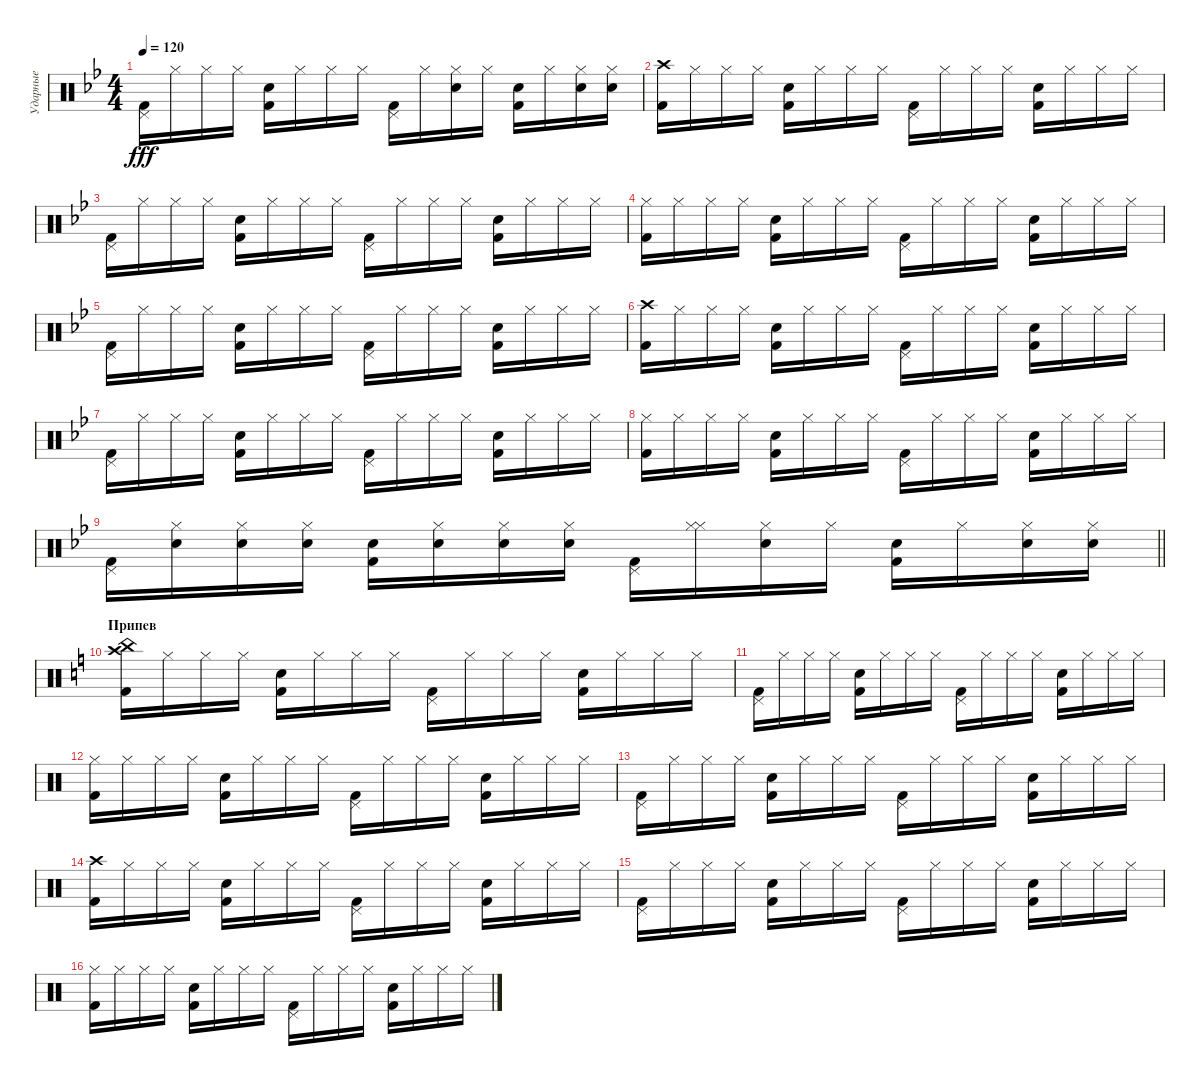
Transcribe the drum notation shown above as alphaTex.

\track ("Ударные" "Ударные") {instrument percussion}
\staff {score}
\articulation defaults
\ts (4 4)
\tempo 120
\clef neutral
\ks gminor
("Pedal Hi-Hat (hit)" "Kick (hit) 2").16{dy fff} "Hi-Hat (closed)".16 "Hi-Hat (closed)".16 "Hi-Hat (closed)".16 ("Snare (hit) 2" "Kick (hit) 2").16 "Hi-Hat (closed)".16 "Hi-Hat (closed)".16 "Hi-Hat (closed)".16 ("Pedal Hi-Hat (hit)" "Kick (hit) 2").16 "Hi-Hat (closed)".16 ("Hi-Hat (closed)" "Snare (hit) 2").16 "Hi-Hat (closed)".16 ("Snare (hit) 2" "Kick (hit) 2").16 "Hi-Hat (closed)".16 ("Hi-Hat (closed)" "Snare (hit) 2").16 ("Hi-Hat (closed)" "Snare (hit) 2").16 |
("Crash high (hit)" "Kick (hit) 2").16 "Hi-Hat (closed)".16 "Hi-Hat (closed)".16 "Hi-Hat (closed)".16 ("Snare (hit) 2" "Kick (hit) 2").16 "Hi-Hat (closed)".16 "Hi-Hat (closed)".16 "Hi-Hat (closed)".16 ("Pedal Hi-Hat (hit)" "Kick (hit) 2").16 "Hi-Hat (closed)".16 "Hi-Hat (closed)".16 "Hi-Hat (closed)".16 ("Snare (hit) 2" "Kick (hit) 2").16 "Hi-Hat (closed)".16 "Hi-Hat (closed)".16 "Hi-Hat (closed)".16 |
("Pedal Hi-Hat (hit)" "Kick (hit) 2").16 "Hi-Hat (closed)".16 "Hi-Hat (closed)".16 "Hi-Hat (closed)".16 ("Snare (hit) 2" "Kick (hit) 2").16 "Hi-Hat (closed)".16 "Hi-Hat (closed)".16 "Hi-Hat (closed)".16 ("Pedal Hi-Hat (hit)" "Kick (hit) 2").16 "Hi-Hat (closed)".16 "Hi-Hat (closed)".16 "Hi-Hat (closed)".16 ("Snare (hit) 2" "Kick (hit) 2").16 "Hi-Hat (closed)".16 "Hi-Hat (closed)".16 "Hi-Hat (closed)".16 |
("Hi-Hat (closed)" "Kick (hit) 2").16 "Hi-Hat (closed)".16 "Hi-Hat (closed)".16 "Hi-Hat (closed)".16 ("Snare (hit) 2" "Kick (hit) 2").16 "Hi-Hat (closed)".16 "Hi-Hat (closed)".16 "Hi-Hat (closed)".16 ("Pedal Hi-Hat (hit)" "Kick (hit) 2").16 "Hi-Hat (closed)".16 "Hi-Hat (closed)".16 "Hi-Hat (closed)".16 ("Snare (hit) 2" "Kick (hit) 2").16 "Hi-Hat (closed)".16 "Hi-Hat (closed)".16 "Hi-Hat (closed)".16 |
("Pedal Hi-Hat (hit)" "Kick (hit) 2").16 "Hi-Hat (closed)".16 "Hi-Hat (closed)".16 "Hi-Hat (closed)".16 ("Snare (hit) 2" "Kick (hit) 2").16 "Hi-Hat (closed)".16 "Hi-Hat (closed)".16 "Hi-Hat (closed)".16 ("Pedal Hi-Hat (hit)" "Kick (hit) 2").16 "Hi-Hat (closed)".16 "Hi-Hat (closed)".16 "Hi-Hat (closed)".16 ("Snare (hit) 2" "Kick (hit) 2").16 "Hi-Hat (closed)".16 "Hi-Hat (closed)".16 "Hi-Hat (closed)".16 |
("Crash high (hit)" "Kick (hit) 2").16 "Hi-Hat (closed)".16 "Hi-Hat (closed)".16 "Hi-Hat (closed)".16 ("Snare (hit) 2" "Kick (hit) 2").16 "Hi-Hat (closed)".16 "Hi-Hat (closed)".16 "Hi-Hat (closed)".16 ("Pedal Hi-Hat (hit)" "Kick (hit) 2").16 "Hi-Hat (closed)".16 "Hi-Hat (closed)".16 "Hi-Hat (closed)".16 ("Snare (hit) 2" "Kick (hit) 2").16 "Hi-Hat (closed)".16 "Hi-Hat (closed)".16 "Hi-Hat (closed)".16 |
("Pedal Hi-Hat (hit)" "Kick (hit) 2").16 "Hi-Hat (closed)".16 "Hi-Hat (closed)".16 "Hi-Hat (closed)".16 ("Snare (hit) 2" "Kick (hit) 2").16 "Hi-Hat (closed)".16 "Hi-Hat (closed)".16 "Hi-Hat (closed)".16 ("Pedal Hi-Hat (hit)" "Kick (hit) 2").16 "Hi-Hat (closed)".16 "Hi-Hat (closed)".16 "Hi-Hat (closed)".16 ("Snare (hit) 2" "Kick (hit) 2").16 "Hi-Hat (closed)".16 "Hi-Hat (closed)".16 "Hi-Hat (closed)".16 |
("Hi-Hat (closed)" "Kick (hit) 2").16 "Hi-Hat (closed)".16 "Hi-Hat (closed)".16 "Hi-Hat (closed)".16 ("Snare (hit) 2" "Kick (hit) 2").16 "Hi-Hat (closed)".16 "Hi-Hat (closed)".16 "Hi-Hat (closed)".16 ("Pedal Hi-Hat (hit)" "Kick (hit) 2").16 "Hi-Hat (closed)".16 "Hi-Hat (closed)".16 "Hi-Hat (closed)".16 ("Snare (hit) 2" "Kick (hit) 2").16 "Hi-Hat (closed)".16 "Hi-Hat (closed)".16 "Hi-Hat (closed)".16 |
\barLineRight lightlight
("Pedal Hi-Hat (hit)" "Kick (hit) 2").16 ("Hi-Hat (closed)" "Snare (hit) 2").16 ("Hi-Hat (closed)" "Snare (hit) 2").16 ("Hi-Hat (closed)" "Snare (hit) 2").16 ("Snare (hit) 2" "Kick (hit) 2").16 ("Hi-Hat (closed)" "Snare (hit) 2").16 ("Hi-Hat (closed)" "Snare (hit) 2").16 ("Hi-Hat (closed)" "Snare (hit) 2").16 ("Pedal Hi-Hat (hit)" "Kick (hit) 2").16 ("Hi-Hat (closed)" "Hi-Hat (closed)").16 ("Hi-Hat (closed)" "Snare (hit) 2").16 "Hi-Hat (closed)".16 ("Snare (hit) 2" "Kick (hit) 2").16 "Hi-Hat (closed)".16 ("Hi-Hat (closed)" "Snare (hit) 2").16 ("Hi-Hat (closed)" "Snare (hit) 2").16 |
\section ("" "Припев")
\ks c
("Crash high (hit)" "China (hit)" "Kick (hit) 2").16 "Hi-Hat (closed)".16 "Hi-Hat (closed)".16 "Hi-Hat (closed)".16 ("Snare (hit) 2" "Kick (hit) 2").16 "Hi-Hat (closed)".16 "Hi-Hat (closed)".16 "Hi-Hat (closed)".16 ("Pedal Hi-Hat (hit)" "Kick (hit) 2").16 "Hi-Hat (closed)".16 "Hi-Hat (closed)".16 "Hi-Hat (closed)".16 ("Snare (hit) 2" "Kick (hit) 2").16 "Hi-Hat (closed)".16 "Hi-Hat (closed)".16 "Hi-Hat (closed)".16 |
("Pedal Hi-Hat (hit)" "Kick (hit) 2").16 "Hi-Hat (closed)".16 "Hi-Hat (closed)".16 "Hi-Hat (closed)".16 ("Snare (hit) 2" "Kick (hit) 2").16 "Hi-Hat (closed)".16 "Hi-Hat (closed)".16 "Hi-Hat (closed)".16 ("Pedal Hi-Hat (hit)" "Kick (hit) 2").16 "Hi-Hat (closed)".16 "Hi-Hat (closed)".16 "Hi-Hat (closed)".16 ("Snare (hit) 2" "Kick (hit) 2").16 "Hi-Hat (closed)".16 "Hi-Hat (closed)".16 "Hi-Hat (closed)".16 |
("Hi-Hat (closed)" "Kick (hit) 2").16 "Hi-Hat (closed)".16 "Hi-Hat (closed)".16 "Hi-Hat (closed)".16 ("Snare (hit) 2" "Kick (hit) 2").16 "Hi-Hat (closed)".16 "Hi-Hat (closed)".16 "Hi-Hat (closed)".16 ("Pedal Hi-Hat (hit)" "Kick (hit) 2").16 "Hi-Hat (closed)".16 "Hi-Hat (closed)".16 "Hi-Hat (closed)".16 ("Snare (hit) 2" "Kick (hit) 2").16 "Hi-Hat (closed)".16 "Hi-Hat (closed)".16 "Hi-Hat (closed)".16 |
("Pedal Hi-Hat (hit)" "Kick (hit) 2").16 "Hi-Hat (closed)".16 "Hi-Hat (closed)".16 "Hi-Hat (closed)".16 ("Snare (hit) 2" "Kick (hit) 2").16 "Hi-Hat (closed)".16 "Hi-Hat (closed)".16 "Hi-Hat (closed)".16 ("Pedal Hi-Hat (hit)" "Kick (hit) 2").16 "Hi-Hat (closed)".16 "Hi-Hat (closed)".16 "Hi-Hat (closed)".16 ("Snare (hit) 2" "Kick (hit) 2").16 "Hi-Hat (closed)".16 "Hi-Hat (closed)".16 "Hi-Hat (closed)".16 |
("Crash high (hit)" "Kick (hit) 2").16 "Hi-Hat (closed)".16 "Hi-Hat (closed)".16 "Hi-Hat (closed)".16 ("Snare (hit) 2" "Kick (hit) 2").16 "Hi-Hat (closed)".16 "Hi-Hat (closed)".16 "Hi-Hat (closed)".16 ("Pedal Hi-Hat (hit)" "Kick (hit) 2").16 "Hi-Hat (closed)".16 "Hi-Hat (closed)".16 "Hi-Hat (closed)".16 ("Snare (hit) 2" "Kick (hit) 2").16 "Hi-Hat (closed)".16 "Hi-Hat (closed)".16 "Hi-Hat (closed)".16 |
("Pedal Hi-Hat (hit)" "Kick (hit) 2").16 "Hi-Hat (closed)".16 "Hi-Hat (closed)".16 "Hi-Hat (closed)".16 ("Snare (hit) 2" "Kick (hit) 2").16 "Hi-Hat (closed)".16 "Hi-Hat (closed)".16 "Hi-Hat (closed)".16 ("Pedal Hi-Hat (hit)" "Kick (hit) 2").16 "Hi-Hat (closed)".16 "Hi-Hat (closed)".16 "Hi-Hat (closed)".16 ("Snare (hit) 2" "Kick (hit) 2").16 "Hi-Hat (closed)".16 "Hi-Hat (closed)".16 "Hi-Hat (closed)".16 |
("Hi-Hat (closed)" "Kick (hit) 2").16 "Hi-Hat (closed)".16 "Hi-Hat (closed)".16 "Hi-Hat (closed)".16 ("Snare (hit) 2" "Kick (hit) 2").16 "Hi-Hat (closed)".16 "Hi-Hat (closed)".16 "Hi-Hat (closed)".16 ("Pedal Hi-Hat (hit)" "Kick (hit) 2").16 "Hi-Hat (closed)".16 "Hi-Hat (closed)".16 "Hi-Hat (closed)".16 ("Snare (hit) 2" "Kick (hit) 2").16 "Hi-Hat (closed)".16 "Hi-Hat (closed)".16 "Hi-Hat (closed)".16
